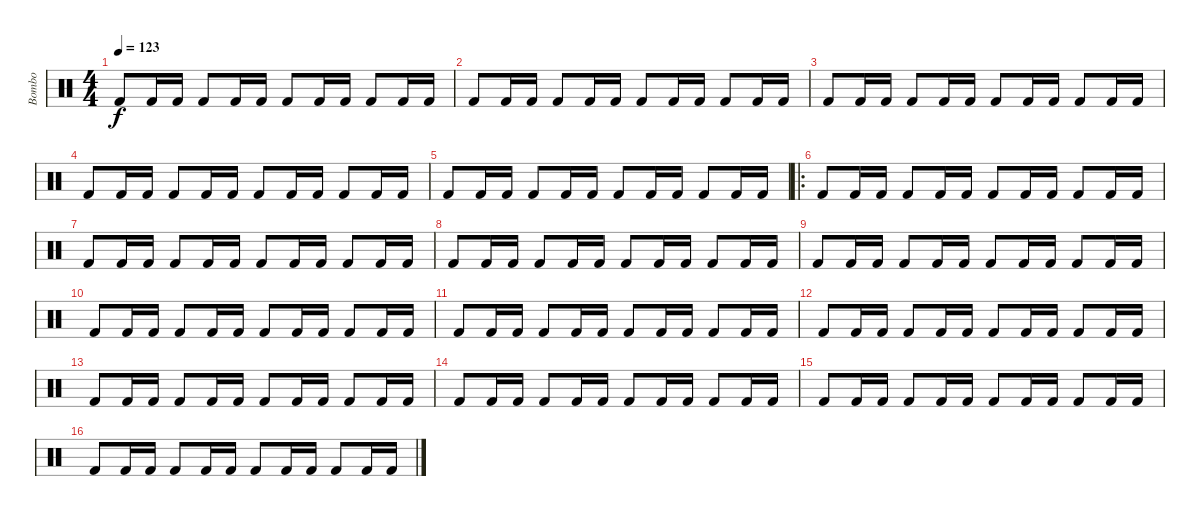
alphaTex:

\track ("Bombo" "Bombo") {instrument percussion}
\staff {score}
\articulation defaults
\ts (4 4)
\tempo 123
\clef neutral
\ks c "Kick (hit) 2".8{dy f} "Kick (hit) 2".16 "Kick (hit) 2".16 "Kick (hit) 2".8 "Kick (hit) 2".16 "Kick (hit) 2".16 "Kick (hit) 2".8 "Kick (hit) 2".16 "Kick (hit) 2".16 "Kick (hit) 2".8 "Kick (hit) 2".16 "Kick (hit) 2".16
|
"Kick (hit) 2".8 "Kick (hit) 2".16 "Kick (hit) 2".16 "Kick (hit) 2".8 "Kick (hit) 2".16 "Kick (hit) 2".16 "Kick (hit) 2".8 "Kick (hit) 2".16 "Kick (hit) 2".16 "Kick (hit) 2".8 "Kick (hit) 2".16 "Kick (hit) 2".16 |
"Kick (hit) 2".8 "Kick (hit) 2".16 "Kick (hit) 2".16 "Kick (hit) 2".8 "Kick (hit) 2".16 "Kick (hit) 2".16 "Kick (hit) 2".8 "Kick (hit) 2".16 "Kick (hit) 2".16 "Kick (hit) 2".8 "Kick (hit) 2".16 "Kick (hit) 2".16 |
"Kick (hit) 2".8 "Kick (hit) 2".16 "Kick (hit) 2".16 "Kick (hit) 2".8 "Kick (hit) 2".16 "Kick (hit) 2".16 "Kick (hit) 2".8 "Kick (hit) 2".16 "Kick (hit) 2".16 "Kick (hit) 2".8 "Kick (hit) 2".16 "Kick (hit) 2".16 |
"Kick (hit) 2".8 "Kick (hit) 2".16 "Kick (hit) 2".16 "Kick (hit) 2".8 "Kick (hit) 2".16 "Kick (hit) 2".16 "Kick (hit) 2".8 "Kick (hit) 2".16 "Kick (hit) 2".16 "Kick (hit) 2".8 "Kick (hit) 2".16 "Kick (hit) 2".16 |
\ro "Kick (hit) 2".8 "Kick (hit) 2".16 "Kick (hit) 2".16 "Kick (hit) 2".8 "Kick (hit) 2".16 "Kick (hit) 2".16 "Kick (hit) 2".8 "Kick (hit) 2".16 "Kick (hit) 2".16 "Kick (hit) 2".8 "Kick (hit) 2".16 "Kick (hit) 2".16
|
"Kick (hit) 2".8 "Kick (hit) 2".16 "Kick (hit) 2".16 "Kick (hit) 2".8 "Kick (hit) 2".16 "Kick (hit) 2".16 "Kick (hit) 2".8 "Kick (hit) 2".16 "Kick (hit) 2".16 "Kick (hit) 2".8 "Kick (hit) 2".16 "Kick (hit) 2".16 |
"Kick (hit) 2".8 "Kick (hit) 2".16 "Kick (hit) 2".16 "Kick (hit) 2".8 "Kick (hit) 2".16 "Kick (hit) 2".16 "Kick (hit) 2".8 "Kick (hit) 2".16 "Kick (hit) 2".16 "Kick (hit) 2".8 "Kick (hit) 2".16 "Kick (hit) 2".16 |
"Kick (hit) 2".8 "Kick (hit) 2".16 "Kick (hit) 2".16 "Kick (hit) 2".8 "Kick (hit) 2".16 "Kick (hit) 2".16 "Kick (hit) 2".8 "Kick (hit) 2".16 "Kick (hit) 2".16 "Kick (hit) 2".8 "Kick (hit) 2".16 "Kick (hit) 2".16 |
"Kick (hit) 2".8 "Kick (hit) 2".16 "Kick (hit) 2".16 "Kick (hit) 2".8 "Kick (hit) 2".16 "Kick (hit) 2".16 "Kick (hit) 2".8 "Kick (hit) 2".16 "Kick (hit) 2".16 "Kick (hit) 2".8 "Kick (hit) 2".16 "Kick (hit) 2".16 |
"Kick (hit) 2".8 "Kick (hit) 2".16 "Kick (hit) 2".16 "Kick (hit) 2".8 "Kick (hit) 2".16 "Kick (hit) 2".16 "Kick (hit) 2".8 "Kick (hit) 2".16 "Kick (hit) 2".16 "Kick (hit) 2".8 "Kick (hit) 2".16 "Kick (hit) 2".16 |
"Kick (hit) 2".8 "Kick (hit) 2".16 "Kick (hit) 2".16 "Kick (hit) 2".8 "Kick (hit) 2".16 "Kick (hit) 2".16 "Kick (hit) 2".8 "Kick (hit) 2".16 "Kick (hit) 2".16 "Kick (hit) 2".8 "Kick (hit) 2".16 "Kick (hit) 2".16 |
"Kick (hit) 2".8 "Kick (hit) 2".16 "Kick (hit) 2".16 "Kick (hit) 2".8 "Kick (hit) 2".16 "Kick (hit) 2".16 "Kick (hit) 2".8 "Kick (hit) 2".16 "Kick (hit) 2".16 "Kick (hit) 2".8 "Kick (hit) 2".16 "Kick (hit) 2".16 |
"Kick (hit) 2".8 "Kick (hit) 2".16 "Kick (hit) 2".16 "Kick (hit) 2".8 "Kick (hit) 2".16 "Kick (hit) 2".16 "Kick (hit) 2".8 "Kick (hit) 2".16 "Kick (hit) 2".16 "Kick (hit) 2".8 "Kick (hit) 2".16 "Kick (hit) 2".16 |
"Kick (hit) 2".8 "Kick (hit) 2".16 "Kick (hit) 2".16 "Kick (hit) 2".8 "Kick (hit) 2".16 "Kick (hit) 2".16 "Kick (hit) 2".8 "Kick (hit) 2".16 "Kick (hit) 2".16 "Kick (hit) 2".8 "Kick (hit) 2".16 "Kick (hit) 2".16 |
"Kick (hit) 2".8 "Kick (hit) 2".16 "Kick (hit) 2".16 "Kick (hit) 2".8 "Kick (hit) 2".16 "Kick (hit) 2".16 "Kick (hit) 2".8 "Kick (hit) 2".16 "Kick (hit) 2".16 "Kick (hit) 2".8 "Kick (hit) 2".16 "Kick (hit) 2".16
